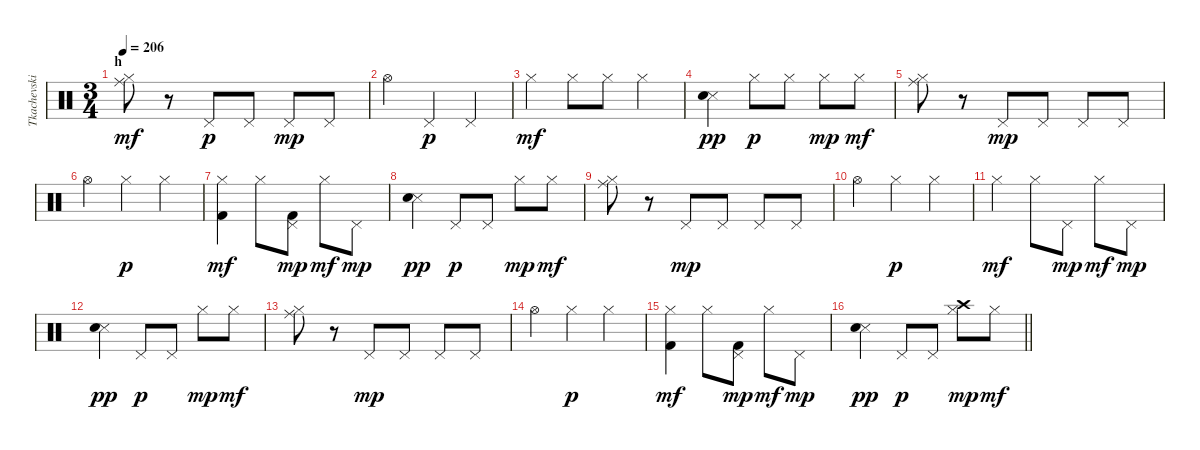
\track ("Tkachevskiy A" "Tkachevski") {instrument percussion}
\staff {score}
\articulation defaults
\ts (3 4)
\section ("" "h")
\tempo 206
\clef neutral
\ks c
("Hi-Hat (closed)" "Ride (middle)").8{dy mf} r.8 "Pedal Hi-Hat (hit)".8{dy p} "Pedal Hi-Hat (hit)".8 "Pedal Hi-Hat (hit)".8{dy mp} "Pedal Hi-Hat (hit)".8 |
"Hi-Hat (open)".4 "Pedal Hi-Hat (hit)".4{dy p} "Pedal Hi-Hat (hit)".4 |
"Hi-Hat (closed)".4{dy mf} "Hi-Hat (closed)".8 "Hi-Hat (closed)".8 "Hi-Hat (closed)".4 |
("Snare (side stick) 3" "Snare (hit) 2").4{dy pp} "Hi-Hat (closed)".8{dy p} "Hi-Hat (closed)".8 "Hi-Hat (closed)".8{dy mp} "Hi-Hat (closed)".8{dy mf} |
("Hi-Hat (closed)" "Ride (middle)").8 r.8 "Pedal Hi-Hat (hit)".8{dy mp} "Pedal Hi-Hat (hit)".8 "Pedal Hi-Hat (hit)".8 "Pedal Hi-Hat (hit)".8 |
"Hi-Hat (open)".4 "Hi-Hat (closed)".4{dy p} "Hi-Hat (closed)".4 |
("Hi-Hat (closed)" "Kick (hit) 2").4{dy mf} "Hi-Hat (closed)".8 ("Pedal Hi-Hat (hit)" "Kick (hit) 2").8{dy mp} "Hi-Hat (closed)".8{dy mf} "Pedal Hi-Hat (hit)".8{dy mp} |
("Snare (side stick) 3" "Snare (hit) 2").4{dy pp} "Pedal Hi-Hat (hit)".8{dy p} "Pedal Hi-Hat (hit)".8 "Hi-Hat (closed)".8{dy mp} "Hi-Hat (closed)".8{dy mf} |
("Hi-Hat (closed)" "Ride (middle)").8 r.8 "Pedal Hi-Hat (hit)".8{dy mp} "Pedal Hi-Hat (hit)".8 "Pedal Hi-Hat (hit)".8 "Pedal Hi-Hat (hit)".8 |
"Hi-Hat (open)".4 "Hi-Hat (closed)".4{dy p} "Hi-Hat (closed)".4 |
"Hi-Hat (closed)".4{dy mf} "Hi-Hat (closed)".8 "Pedal Hi-Hat (hit)".8{dy mp} "Hi-Hat (closed)".8{dy mf} "Pedal Hi-Hat (hit)".8{dy mp} |
("Snare (side stick) 3" "Snare (hit) 2").4{dy pp} "Pedal Hi-Hat (hit)".8{dy p} "Pedal Hi-Hat (hit)".8 "Hi-Hat (closed)".8{dy mp} "Hi-Hat (closed)".8{dy mf} |
("Hi-Hat (closed)" "Ride (middle)").8 r.8 "Pedal Hi-Hat (hit)".8{dy mp} "Pedal Hi-Hat (hit)".8 "Pedal Hi-Hat (hit)".8 "Pedal Hi-Hat (hit)".8 |
"Hi-Hat (open)".4 "Hi-Hat (closed)".4{dy p} "Hi-Hat (closed)".4 |
("Hi-Hat (closed)" "Kick (hit) 2").4{dy mf} "Hi-Hat (closed)".8 ("Pedal Hi-Hat (hit)" "Kick (hit) 2").8{dy mp} "Hi-Hat (closed)".8{dy mf} "Pedal Hi-Hat (hit)".8{dy mp} |
\barLineRight lightlight
("Snare (side stick) 3" "Snare (hit) 2").4{dy pp} "Pedal Hi-Hat (hit)".8{dy p} "Pedal Hi-Hat (hit)".8 ("Hi-Hat (closed)" "Crash high (hit)").8{dy mp} "Hi-Hat (closed)".8{dy mf}
